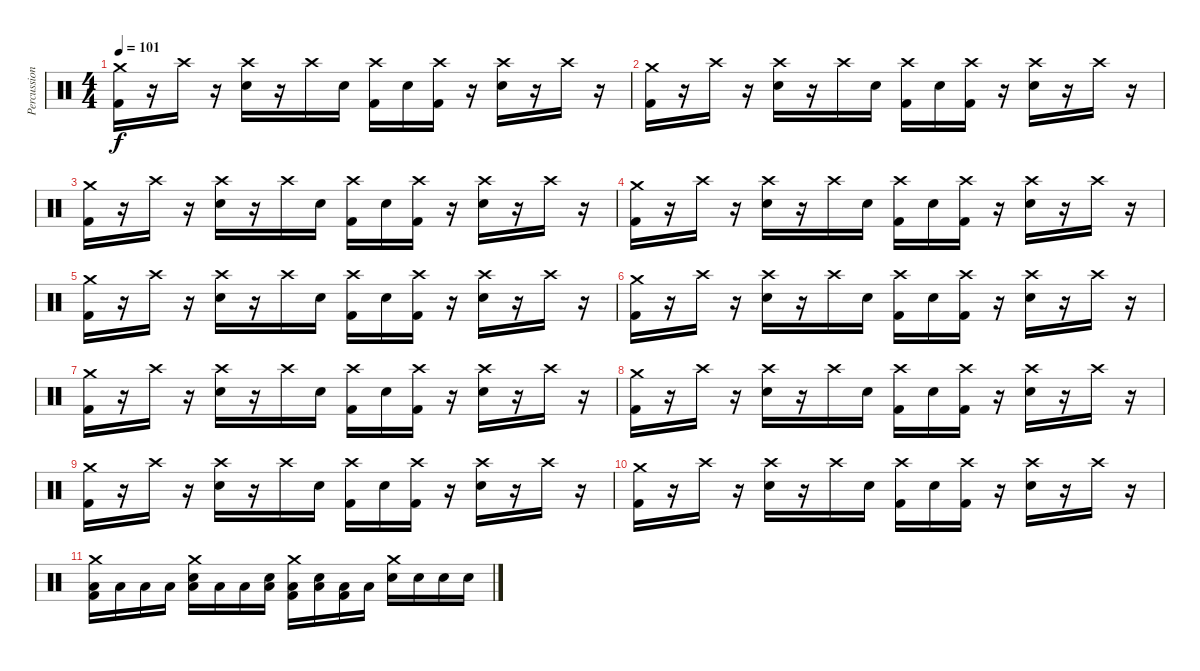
\track ("Percussioni" "Percussion") {instrument percussion}
\staff {score}
\articulation defaults
\ts (4 4)
\tempo 101
\clef neutral
\ks c
("Crash medium (hit)" "Kick (hit) 2").16{dy f} r.16 "Crash high (hit)".16 r.16 ("Crash high (hit)" "Electric Snare (hit)").16 r.16 "Crash high (hit)".16 "Electric Snare (hit)".16 ("Crash high (hit)" "Kick (hit) 2").16 "Electric Snare (hit)".16 ("Crash high (hit)" "Kick (hit) 2").16 r.16 ("Crash high (hit)" "Electric Snare (hit)").16 r.16 "Crash high (hit)".16 r.16 |
("Crash medium (hit)" "Kick (hit) 2").16 r.16 "Crash high (hit)".16 r.16 ("Crash high (hit)" "Electric Snare (hit)").16 r.16 "Crash high (hit)".16 "Electric Snare (hit)".16 ("Crash high (hit)" "Kick (hit) 2").16 "Electric Snare (hit)".16 ("Crash high (hit)" "Kick (hit) 2").16 r.16 ("Crash high (hit)" "Electric Snare (hit)").16 r.16 "Crash high (hit)".16 r.16 |
("Crash medium (hit)" "Kick (hit) 2").16 r.16 "Crash high (hit)".16 r.16 ("Crash high (hit)" "Electric Snare (hit)").16 r.16 "Crash high (hit)".16 "Electric Snare (hit)".16 ("Crash high (hit)" "Kick (hit) 2").16 "Electric Snare (hit)".16 ("Crash high (hit)" "Kick (hit) 2").16 r.16 ("Crash high (hit)" "Electric Snare (hit)").16 r.16 "Crash high (hit)".16 r.16 |
("Crash medium (hit)" "Kick (hit) 2").16 r.16 "Crash high (hit)".16 r.16 ("Crash high (hit)" "Electric Snare (hit)").16 r.16 "Crash high (hit)".16 "Electric Snare (hit)".16 ("Crash high (hit)" "Kick (hit) 2").16 "Electric Snare (hit)".16 ("Crash high (hit)" "Kick (hit) 2").16 r.16 ("Crash high (hit)" "Electric Snare (hit)").16 r.16 "Crash high (hit)".16 r.16 |
("Crash medium (hit)" "Kick (hit) 2").16 r.16 "Crash high (hit)".16 r.16 ("Crash high (hit)" "Electric Snare (hit)").16 r.16 "Crash high (hit)".16 "Electric Snare (hit)".16 ("Crash high (hit)" "Kick (hit) 2").16 "Electric Snare (hit)".16 ("Crash high (hit)" "Kick (hit) 2").16 r.16 ("Crash high (hit)" "Electric Snare (hit)").16 r.16 "Crash high (hit)".16 r.16 |
("Crash medium (hit)" "Kick (hit) 2").16 r.16 "Crash high (hit)".16 r.16 ("Crash high (hit)" "Electric Snare (hit)").16 r.16 "Crash high (hit)".16 "Electric Snare (hit)".16 ("Crash high (hit)" "Kick (hit) 2").16 "Electric Snare (hit)".16 ("Crash high (hit)" "Kick (hit) 2").16 r.16 ("Crash high (hit)" "Electric Snare (hit)").16 r.16 "Crash high (hit)".16 r.16 |
("Crash medium (hit)" "Kick (hit) 2").16 r.16 "Crash high (hit)".16 r.16 ("Crash high (hit)" "Electric Snare (hit)").16 r.16 "Crash high (hit)".16 "Electric Snare (hit)".16 ("Crash high (hit)" "Kick (hit) 2").16 "Electric Snare (hit)".16 ("Crash high (hit)" "Kick (hit) 2").16 r.16 ("Crash high (hit)" "Electric Snare (hit)").16 r.16 "Crash high (hit)".16 r.16 |
("Crash medium (hit)" "Kick (hit) 2").16 r.16 "Crash high (hit)".16 r.16 ("Crash high (hit)" "Electric Snare (hit)").16 r.16 "Crash high (hit)".16 "Electric Snare (hit)".16 ("Crash high (hit)" "Kick (hit) 2").16 "Electric Snare (hit)".16 ("Crash high (hit)" "Kick (hit) 2").16 r.16 ("Crash high (hit)" "Electric Snare (hit)").16 r.16 "Crash high (hit)".16 r.16 |
("Crash medium (hit)" "Kick (hit) 2").16 r.16 "Crash high (hit)".16 r.16 ("Crash high (hit)" "Electric Snare (hit)").16 r.16 "Crash high (hit)".16 "Electric Snare (hit)".16 ("Crash high (hit)" "Kick (hit) 2").16 "Electric Snare (hit)".16 ("Crash high (hit)" "Kick (hit) 2").16 r.16 ("Crash high (hit)" "Electric Snare (hit)").16 r.16 "Crash high (hit)".16 r.16 |
("Crash medium (hit)" "Kick (hit) 2").16 r.16 "Crash high (hit)".16 r.16 ("Crash high (hit)" "Electric Snare (hit)").16 r.16 "Crash high (hit)".16 "Electric Snare (hit)".16 ("Crash high (hit)" "Kick (hit) 2").16 "Electric Snare (hit)".16 ("Crash high (hit)" "Kick (hit) 2").16 r.16 ("Crash high (hit)" "Electric Snare (hit)").16 r.16 "Crash high (hit)".16 r.16 |
("Crash medium (hit)" "Low Tom (hit)" "Kick (hit) 2").16 "Low Tom (hit)".16 "Low Tom (hit)".16 "Low Tom (hit)".16 ("Crash medium (hit)" "Low Tom (hit)" "Electric Snare (hit)").16 "Low Tom (hit)".16 "Low Tom (hit)".16 ("Low Tom (hit)" "Electric Snare (hit)").16 ("Crash medium (hit)" "Low Tom (hit)" "Kick (hit) 2").16 ("Low Tom (hit)" "Electric Snare (hit)").16 ("Low Tom (hit)" "Kick (hit) 2").16 "Low Tom (hit)".16 ("Crash medium (hit)" "Electric Snare (hit)").16 "Electric Snare (hit)".16 "Electric Snare (hit)".16 "Electric Snare (hit)".16
